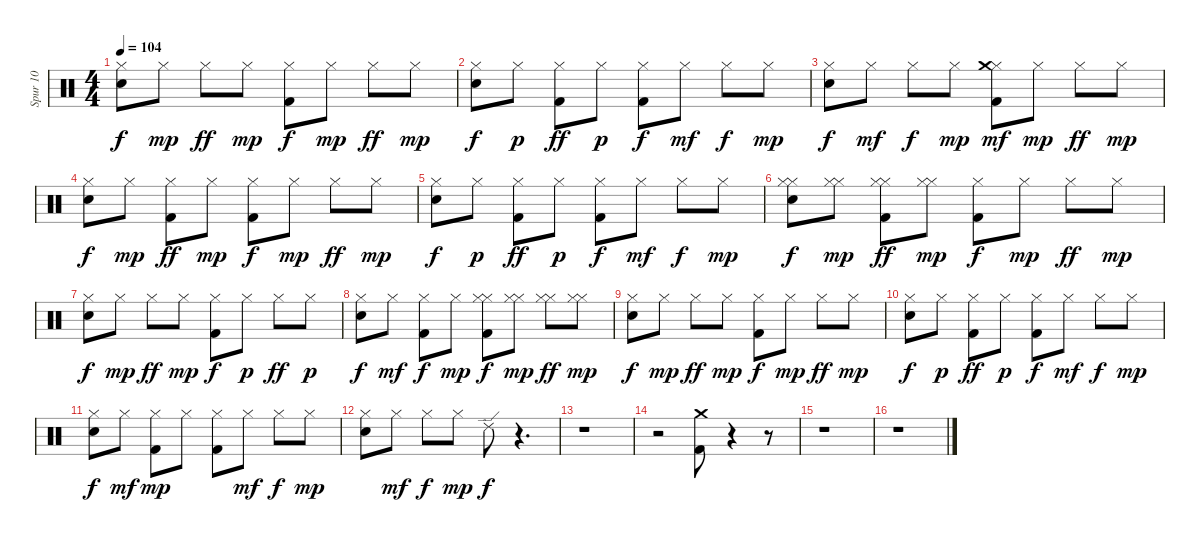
\track ("Spur 10" "Spur 10") {instrument percussion}
\staff {score}
\articulation defaults
\ts (4 4)
\tempo 104
\clef neutral
\ks c
("Snare (hit) 2" "Hi-Hat (closed)").8{dy f} "Hi-Hat (closed)".8{dy mp} "Hi-Hat (closed)".8{dy ff} "Hi-Hat (closed)".8{dy mp} ("Kick (hit) 2" "Hi-Hat (closed)").8{dy f} "Hi-Hat (closed)".8{dy mp} "Hi-Hat (closed)".8{dy ff} "Hi-Hat (closed)".8{dy mp} |
("Snare (hit) 2" "Hi-Hat (closed)").8{dy f} "Hi-Hat (closed)".8{dy p} ("Kick (hit) 2" "Hi-Hat (closed)").8{dy ff} "Hi-Hat (closed)".8{dy p} ("Kick (hit) 2" "Hi-Hat (closed)").8{dy f} "Hi-Hat (closed)".8{dy mf} "Hi-Hat (closed)".8{dy f} "Hi-Hat (closed)".8{dy mp} |
("Snare (hit) 2" "Hi-Hat (closed)").8{dy f} "Hi-Hat (closed)".8{dy mf} "Hi-Hat (closed)".8{dy f} "Hi-Hat (closed)".8{dy mp} ("Hi-Hat (closed)" "Crash medium (hit)" "Kick (hit) 2").8{dy mf} "Hi-Hat (closed)".8{dy mp} "Hi-Hat (closed)".8{dy ff} "Hi-Hat (closed)".8{dy mp} |
("Hi-Hat (closed)" "Snare (hit) 2").8{dy f} "Hi-Hat (closed)".8{dy mp} ("Hi-Hat (closed)" "Kick (hit) 2").8{dy ff} "Hi-Hat (closed)".8{dy mp} ("Hi-Hat (closed)" "Kick (hit) 2").8{dy f} "Hi-Hat (closed)".8{dy mp} "Hi-Hat (closed)".8{dy ff} "Hi-Hat (closed)".8{dy mp} |
("Hi-Hat (closed)" "Snare (hit) 2").8{dy f} "Hi-Hat (closed)".8{dy p} ("Hi-Hat (closed)" "Kick (hit) 2").8{dy ff} "Hi-Hat (closed)".8{dy p} ("Hi-Hat (closed)" "Kick (hit) 2").8{dy f} "Hi-Hat (closed)".8{dy mf} "Hi-Hat (closed)".8{dy f} "Hi-Hat (closed)".8{dy mp} |
("Hi-Hat (closed)" "Snare (hit) 2" "Hi-Hat (closed)").8{dy f} ("Hi-Hat (closed)" "Hi-Hat (closed)").8{dy mp} ("Hi-Hat (closed)" "Kick (hit) 2" "Hi-Hat (closed)").8{dy ff} ("Hi-Hat (closed)" "Hi-Hat (closed)").8{dy mp} ("Kick (hit) 2" "Hi-Hat (closed)").8{dy f} "Hi-Hat (closed)".8{dy mp} "Hi-Hat (closed)".8{dy ff} "Hi-Hat (closed)".8{dy mp} |
("Snare (hit) 2" "Hi-Hat (closed)").8{dy f} "Hi-Hat (closed)".8{dy mp} "Hi-Hat (closed)".8{dy ff} "Hi-Hat (closed)".8{dy mp} ("Kick (hit) 2" "Hi-Hat (closed)").8{dy f} "Hi-Hat (closed)".8{dy p} "Hi-Hat (closed)".8{dy ff} "Hi-Hat (closed)".8{dy p} |
("Snare (hit) 2" "Hi-Hat (closed)").8{dy f} "Hi-Hat (closed)".8{dy mf} ("Kick (hit) 2" "Hi-Hat (closed)").8{dy f} "Hi-Hat (closed)".8{dy mp} ("Kick (hit) 2" "Hi-Hat (closed)" "Hi-Hat (closed)").8{dy f} ("Hi-Hat (closed)" "Hi-Hat (closed)").8{dy mp} ("Hi-Hat (closed)" "Hi-Hat (closed)").8{dy ff} ("Hi-Hat (closed)" "Hi-Hat (closed)").8{dy mp} |
("Snare (hit) 2" "Hi-Hat (closed)").8{dy f} "Hi-Hat (closed)".8{dy mp} "Hi-Hat (closed)".8{dy ff} "Hi-Hat (closed)".8{dy mp} ("Kick (hit) 2" "Hi-Hat (closed)").8{dy f} "Hi-Hat (closed)".8{dy mp} "Hi-Hat (closed)".8{dy ff} "Hi-Hat (closed)".8{dy mp} |
("Snare (hit) 2" "Hi-Hat (closed)").8{dy f} "Hi-Hat (closed)".8{dy p} ("Kick (hit) 2" "Hi-Hat (closed)").8{dy ff} "Hi-Hat (closed)".8{dy p} ("Kick (hit) 2" "Hi-Hat (closed)").8{dy f} "Hi-Hat (closed)".8{dy mf} "Hi-Hat (closed)".8{dy f} "Hi-Hat (closed)".8{dy mp} |
("Snare (hit) 2" "Hi-Hat (closed)").8{dy f} "Hi-Hat (closed)".8{dy mf} ("Hi-Hat (closed)" "Kick (hit) 2").8{dy mp} "Hi-Hat (closed)".8 ("Kick (hit) 2" "Hi-Hat (closed)").8 "Hi-Hat (closed)".8{dy mf} "Hi-Hat (closed)".8{dy f} "Hi-Hat (closed)".8{dy mp} |
("Snare (hit) 2" "Hi-Hat (closed)").8 "Hi-Hat (closed)".8{dy mf} "Hi-Hat (closed)".8{dy f} "Hi-Hat (closed)".8{dy mp} "Ride (edge) 2".8{dy f} r.4{d} |
r.1 |
r.2 ("Crash medium (hit)" "Kick (hit) 2").8 r.4 r.8 |
r.1 |
r.1
